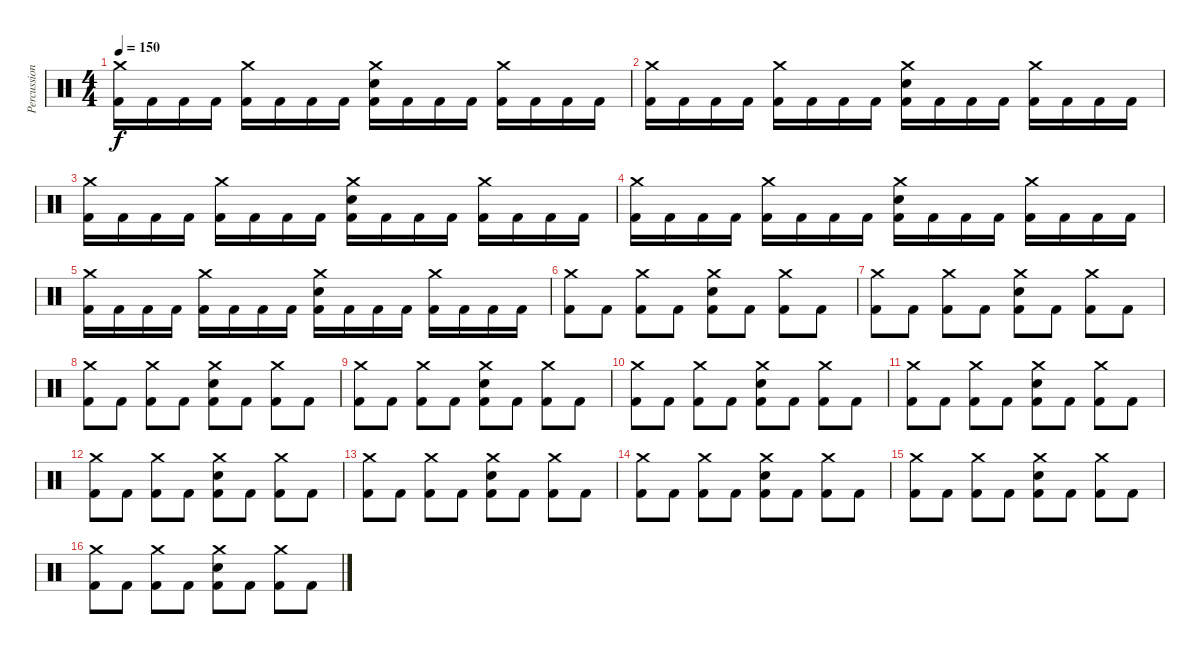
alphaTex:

\track ("Percussion" "Percussion") {instrument percussion}
\staff {score}
\articulation defaults
\ts (4 4)
\tempo 150
\clef neutral
\ks c
("Crash medium (hit)" "Kick (hit) 2").16{dy f} "Kick (hit) 2".16 "Kick (hit) 2".16 "Kick (hit) 2".16 ("Crash medium (hit)" "Kick (hit) 2").16 "Kick (hit) 2".16 "Kick (hit) 2".16 "Kick (hit) 2".16 ("Crash medium (hit)" "Electric Snare (hit)" "Kick (hit) 2").16 "Kick (hit) 2".16 "Kick (hit) 2".16 "Kick (hit) 2".16 ("Crash medium (hit)" "Kick (hit) 2").16 "Kick (hit) 2".16 "Kick (hit) 2".16 "Kick (hit) 2".16 |
("Crash medium (hit)" "Kick (hit) 2").16 "Kick (hit) 2".16 "Kick (hit) 2".16 "Kick (hit) 2".16 ("Crash medium (hit)" "Kick (hit) 2").16 "Kick (hit) 2".16 "Kick (hit) 2".16 "Kick (hit) 2".16 ("Crash medium (hit)" "Electric Snare (hit)" "Kick (hit) 2").16 "Kick (hit) 2".16 "Kick (hit) 2".16 "Kick (hit) 2".16 ("Crash medium (hit)" "Kick (hit) 2").16 "Kick (hit) 2".16 "Kick (hit) 2".16 "Kick (hit) 2".16 |
("Crash medium (hit)" "Kick (hit) 2").16 "Kick (hit) 2".16 "Kick (hit) 2".16 "Kick (hit) 2".16 ("Crash medium (hit)" "Kick (hit) 2").16 "Kick (hit) 2".16 "Kick (hit) 2".16 "Kick (hit) 2".16 ("Crash medium (hit)" "Electric Snare (hit)" "Kick (hit) 2").16 "Kick (hit) 2".16 "Kick (hit) 2".16 "Kick (hit) 2".16 ("Crash medium (hit)" "Kick (hit) 2").16 "Kick (hit) 2".16 "Kick (hit) 2".16 "Kick (hit) 2".16 |
("Crash medium (hit)" "Kick (hit) 2").16 "Kick (hit) 2".16 "Kick (hit) 2".16 "Kick (hit) 2".16 ("Crash medium (hit)" "Kick (hit) 2").16 "Kick (hit) 2".16 "Kick (hit) 2".16 "Kick (hit) 2".16 ("Crash medium (hit)" "Electric Snare (hit)" "Kick (hit) 2").16 "Kick (hit) 2".16 "Kick (hit) 2".16 "Kick (hit) 2".16 ("Crash medium (hit)" "Kick (hit) 2").16 "Kick (hit) 2".16 "Kick (hit) 2".16 "Kick (hit) 2".16 |
("Crash medium (hit)" "Kick (hit) 2").16 "Kick (hit) 2".16 "Kick (hit) 2".16 "Kick (hit) 2".16 ("Crash medium (hit)" "Kick (hit) 2").16 "Kick (hit) 2".16 "Kick (hit) 2".16 "Kick (hit) 2".16 ("Crash medium (hit)" "Electric Snare (hit)" "Kick (hit) 2").16 "Kick (hit) 2".16 "Kick (hit) 2".16 "Kick (hit) 2".16 ("Crash medium (hit)" "Kick (hit) 2").16 "Kick (hit) 2".16 "Kick (hit) 2".16 "Kick (hit) 2".16 |
("Crash medium (hit)" "Kick (hit) 2").8 "Kick (hit) 2".8 ("Crash medium (hit)" "Kick (hit) 2").8 "Kick (hit) 2".8 ("Crash medium (hit)" "Electric Snare (hit)" "Kick (hit) 2").8 "Kick (hit) 2".8 ("Crash medium (hit)" "Kick (hit) 2").8 "Kick (hit) 2".8 |
("Crash medium (hit)" "Kick (hit) 2").8 "Kick (hit) 2".8 ("Crash medium (hit)" "Kick (hit) 2").8 "Kick (hit) 2".8 ("Crash medium (hit)" "Electric Snare (hit)" "Kick (hit) 2").8 "Kick (hit) 2".8 ("Crash medium (hit)" "Kick (hit) 2").8 "Kick (hit) 2".8 |
("Crash medium (hit)" "Kick (hit) 2").8 "Kick (hit) 2".8 ("Crash medium (hit)" "Kick (hit) 2").8 "Kick (hit) 2".8 ("Crash medium (hit)" "Electric Snare (hit)" "Kick (hit) 2").8 "Kick (hit) 2".8 ("Crash medium (hit)" "Kick (hit) 2").8 "Kick (hit) 2".8 |
("Crash medium (hit)" "Kick (hit) 2").8 "Kick (hit) 2".8 ("Crash medium (hit)" "Kick (hit) 2").8 "Kick (hit) 2".8 ("Crash medium (hit)" "Electric Snare (hit)" "Kick (hit) 2").8 "Kick (hit) 2".8 ("Crash medium (hit)" "Kick (hit) 2").8 "Kick (hit) 2".8 |
("Crash medium (hit)" "Kick (hit) 2").8 "Kick (hit) 2".8 ("Crash medium (hit)" "Kick (hit) 2").8 "Kick (hit) 2".8 ("Crash medium (hit)" "Electric Snare (hit)" "Kick (hit) 2").8 "Kick (hit) 2".8 ("Crash medium (hit)" "Kick (hit) 2").8 "Kick (hit) 2".8 |
("Crash medium (hit)" "Kick (hit) 2").8 "Kick (hit) 2".8 ("Crash medium (hit)" "Kick (hit) 2").8 "Kick (hit) 2".8 ("Crash medium (hit)" "Electric Snare (hit)" "Kick (hit) 2").8 "Kick (hit) 2".8 ("Crash medium (hit)" "Kick (hit) 2").8 "Kick (hit) 2".8 |
("Crash medium (hit)" "Kick (hit) 2").8 "Kick (hit) 2".8 ("Crash medium (hit)" "Kick (hit) 2").8 "Kick (hit) 2".8 ("Crash medium (hit)" "Electric Snare (hit)" "Kick (hit) 2").8 "Kick (hit) 2".8 ("Crash medium (hit)" "Kick (hit) 2").8 "Kick (hit) 2".8 |
("Crash medium (hit)" "Kick (hit) 2").8 "Kick (hit) 2".8 ("Crash medium (hit)" "Kick (hit) 2").8 "Kick (hit) 2".8 ("Crash medium (hit)" "Electric Snare (hit)" "Kick (hit) 2").8 "Kick (hit) 2".8 ("Crash medium (hit)" "Kick (hit) 2").8 "Kick (hit) 2".8 |
("Crash medium (hit)" "Kick (hit) 2").8 "Kick (hit) 2".8 ("Crash medium (hit)" "Kick (hit) 2").8 "Kick (hit) 2".8 ("Crash medium (hit)" "Electric Snare (hit)" "Kick (hit) 2").8 "Kick (hit) 2".8 ("Crash medium (hit)" "Kick (hit) 2").8 "Kick (hit) 2".8 |
("Crash medium (hit)" "Kick (hit) 2").8 "Kick (hit) 2".8 ("Crash medium (hit)" "Kick (hit) 2").8 "Kick (hit) 2".8 ("Crash medium (hit)" "Electric Snare (hit)" "Kick (hit) 2").8 "Kick (hit) 2".8 ("Crash medium (hit)" "Kick (hit) 2").8 "Kick (hit) 2".8 |
("Crash medium (hit)" "Kick (hit) 2").8 "Kick (hit) 2".8 ("Crash medium (hit)" "Kick (hit) 2").8 "Kick (hit) 2".8 ("Crash medium (hit)" "Electric Snare (hit)" "Kick (hit) 2").8 "Kick (hit) 2".8 ("Crash medium (hit)" "Kick (hit) 2").8 "Kick (hit) 2".8
